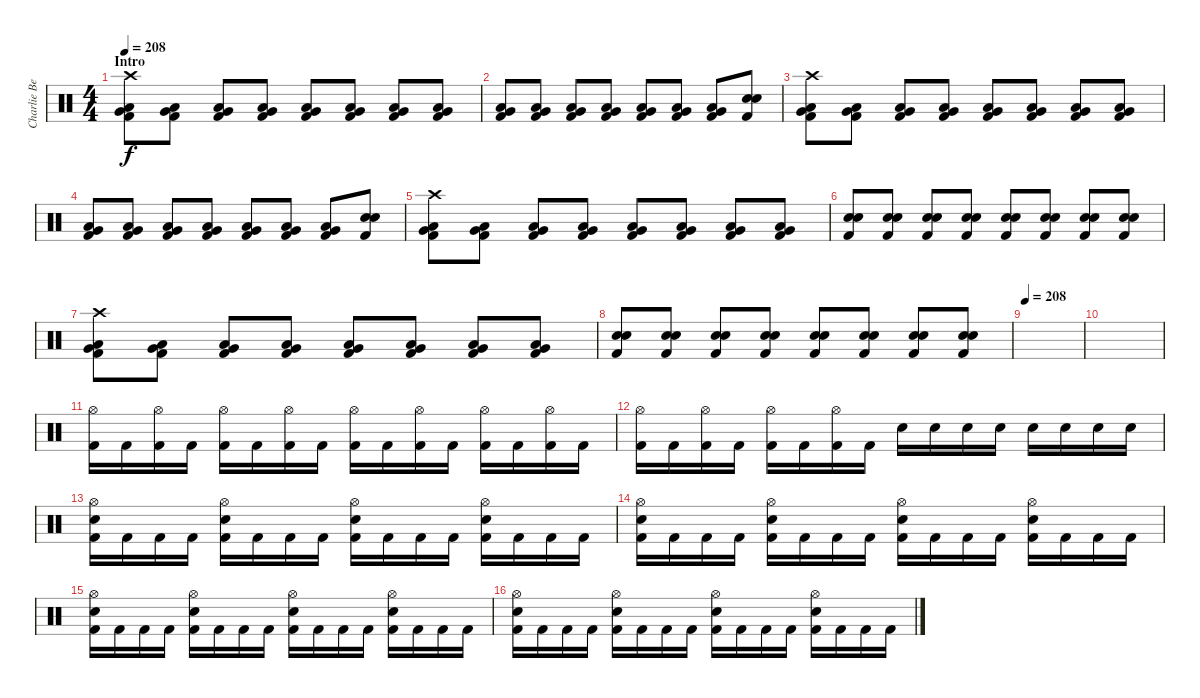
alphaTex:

\track ("Charlie Benate" "Charlie Be") {instrument percussion}
\staff {score}
\articulation defaults
\ts (4 4)
\section ("" "Intro")
\tempo 208
\tempo 152
\tempo 208
\clef neutral
\ks c
("Crash high (hit)" "Very Low Tom (hit)" "Low Tom (hit)" "Kick (hit) 2").8{dy f} ("Very Low Tom (hit)" "Low Tom (hit)" "Kick (hit) 2").8 ("Very Low Tom (hit)" "Low Tom (hit)" "Kick (hit) 2").8 ("Very Low Tom (hit)" "Low Tom (hit)" "Kick (hit) 2").8 ("Very Low Tom (hit)" "Low Tom (hit)" "Kick (hit) 2").8 ("Very Low Tom (hit)" "Low Tom (hit)" "Kick (hit) 2").8 ("Very Low Tom (hit)" "Low Tom (hit)" "Kick (hit) 2").8 ("Very Low Tom (hit)" "Low Tom (hit)" "Kick (hit) 2").8 |
("Very Low Tom (hit)" "Low Tom (hit)" "Kick (hit) 2").8 ("Very Low Tom (hit)" "Low Tom (hit)" "Kick (hit) 2").8 ("Very Low Tom (hit)" "Low Tom (hit)" "Kick (hit) 2").8 ("Very Low Tom (hit)" "Low Tom (hit)" "Kick (hit) 2").8 ("Very Low Tom (hit)" "Low Tom (hit)" "Kick (hit) 2").8 ("Very Low Tom (hit)" "Low Tom (hit)" "Kick (hit) 2").8 ("Very Low Tom (hit)" "Low Tom (hit)" "Kick (hit) 2").8 ("Electric Snare (hit)" "Electric Snare (hit)" "Kick (hit) 2").8 |
("Crash high (hit)" "Very Low Tom (hit)" "Low Tom (hit)" "Kick (hit) 2").8 ("Very Low Tom (hit)" "Low Tom (hit)" "Kick (hit) 2").8 ("Very Low Tom (hit)" "Low Tom (hit)" "Kick (hit) 2").8 ("Very Low Tom (hit)" "Low Tom (hit)" "Kick (hit) 2").8 ("Very Low Tom (hit)" "Low Tom (hit)" "Kick (hit) 2").8 ("Very Low Tom (hit)" "Low Tom (hit)" "Kick (hit) 2").8 ("Very Low Tom (hit)" "Low Tom (hit)" "Kick (hit) 2").8 ("Very Low Tom (hit)" "Low Tom (hit)" "Kick (hit) 2").8 |
("Very Low Tom (hit)" "Low Tom (hit)" "Kick (hit) 2").8 ("Very Low Tom (hit)" "Low Tom (hit)" "Kick (hit) 2").8 ("Very Low Tom (hit)" "Low Tom (hit)" "Kick (hit) 2").8 ("Very Low Tom (hit)" "Low Tom (hit)" "Kick (hit) 2").8 ("Very Low Tom (hit)" "Low Tom (hit)" "Kick (hit) 2").8 ("Very Low Tom (hit)" "Low Tom (hit)" "Kick (hit) 2").8 ("Very Low Tom (hit)" "Low Tom (hit)" "Kick (hit) 2").8 ("Electric Snare (hit)" "Electric Snare (hit)" "Kick (hit) 2").8 |
("Crash high (hit)" "Very Low Tom (hit)" "Low Tom (hit)" "Kick (hit) 2").8 ("Very Low Tom (hit)" "Low Tom (hit)" "Kick (hit) 2").8 ("Very Low Tom (hit)" "Low Tom (hit)" "Kick (hit) 2").8 ("Very Low Tom (hit)" "Low Tom (hit)" "Kick (hit) 2").8 ("Very Low Tom (hit)" "Low Tom (hit)" "Kick (hit) 2").8 ("Very Low Tom (hit)" "Low Tom (hit)" "Kick (hit) 2").8 ("Very Low Tom (hit)" "Low Tom (hit)" "Kick (hit) 2").8 ("Very Low Tom (hit)" "Low Tom (hit)" "Kick (hit) 2").8 |
("Electric Snare (hit)" "Electric Snare (hit)" "Kick (hit) 2").8 ("Electric Snare (hit)" "Electric Snare (hit)" "Kick (hit) 2").8 ("Electric Snare (hit)" "Electric Snare (hit)" "Kick (hit) 2").8 ("Electric Snare (hit)" "Electric Snare (hit)" "Kick (hit) 2").8 ("Electric Snare (hit)" "Electric Snare (hit)" "Kick (hit) 2").8 ("Electric Snare (hit)" "Electric Snare (hit)" "Kick (hit) 2").8 ("Electric Snare (hit)" "Electric Snare (hit)" "Kick (hit) 2").8 ("Electric Snare (hit)" "Electric Snare (hit)" "Kick (hit) 2").8 |
("Crash high (hit)" "Very Low Tom (hit)" "Low Tom (hit)" "Kick (hit) 2").8 ("Very Low Tom (hit)" "Low Tom (hit)" "Kick (hit) 2").8 ("Very Low Tom (hit)" "Low Tom (hit)" "Kick (hit) 2").8 ("Very Low Tom (hit)" "Low Tom (hit)" "Kick (hit) 2").8 ("Very Low Tom (hit)" "Low Tom (hit)" "Kick (hit) 2").8 ("Very Low Tom (hit)" "Low Tom (hit)" "Kick (hit) 2").8 ("Very Low Tom (hit)" "Low Tom (hit)" "Kick (hit) 2").8 ("Very Low Tom (hit)" "Low Tom (hit)" "Kick (hit) 2").8 |
("Electric Snare (hit)" "Electric Snare (hit)" "Kick (hit) 2").8 ("Electric Snare (hit)" "Electric Snare (hit)" "Kick (hit) 2").8 ("Electric Snare (hit)" "Electric Snare (hit)" "Kick (hit) 2").8 ("Electric Snare (hit)" "Electric Snare (hit)" "Kick (hit) 2").8 ("Electric Snare (hit)" "Electric Snare (hit)" "Kick (hit) 2").8 ("Electric Snare (hit)" "Electric Snare (hit)" "Kick (hit) 2").8 ("Electric Snare (hit)" "Electric Snare (hit)" "Kick (hit) 2").8 ("Electric Snare (hit)" "Electric Snare (hit)" "Kick (hit) 2").8 |
\tempo 208
|
|
("Hi-Hat (open)" "Kick (hit) 2").16 "Kick (hit) 2".16 ("Hi-Hat (open)" "Kick (hit) 2").16 "Kick (hit) 2".16 ("Hi-Hat (open)" "Kick (hit) 2").16 "Kick (hit) 2".16 ("Hi-Hat (open)" "Kick (hit) 2").16 "Kick (hit) 2".16 ("Hi-Hat (open)" "Kick (hit) 2").16 "Kick (hit) 2".16 ("Hi-Hat (open)" "Kick (hit) 2").16 "Kick (hit) 2".16 ("Hi-Hat (open)" "Kick (hit) 2").16 "Kick (hit) 2".16 ("Hi-Hat (open)" "Kick (hit) 2").16 "Kick (hit) 2".16 |
("Hi-Hat (open)" "Kick (hit) 2").16 "Kick (hit) 2".16 ("Hi-Hat (open)" "Kick (hit) 2").16 "Kick (hit) 2".16 ("Hi-Hat (open)" "Kick (hit) 2").16 "Kick (hit) 2".16 ("Hi-Hat (open)" "Kick (hit) 2").16 "Kick (hit) 2".16 "Electric Snare (hit)".16 "Electric Snare (hit)".16 "Electric Snare (hit)".16 "Electric Snare (hit)".16 "Electric Snare (hit)".16 "Electric Snare (hit)".16 "Electric Snare (hit)".16 "Electric Snare (hit)".16 |
("Hi-Hat (open)" "Electric Snare (hit)" "Kick (hit) 2").16 "Kick (hit) 2".16 "Kick (hit) 2".16 "Kick (hit) 2".16 ("Hi-Hat (open)" "Electric Snare (hit)" "Kick (hit) 2").16 "Kick (hit) 2".16 "Kick (hit) 2".16 "Kick (hit) 2".16 ("Hi-Hat (open)" "Electric Snare (hit)" "Kick (hit) 2").16 "Kick (hit) 2".16 "Kick (hit) 2".16 "Kick (hit) 2".16 ("Hi-Hat (open)" "Electric Snare (hit)" "Kick (hit) 2").16 "Kick (hit) 2".16 "Kick (hit) 2".16 "Kick (hit) 2".16 |
("Hi-Hat (open)" "Electric Snare (hit)" "Kick (hit) 2").16 "Kick (hit) 2".16 "Kick (hit) 2".16 "Kick (hit) 2".16 ("Hi-Hat (open)" "Electric Snare (hit)" "Kick (hit) 2").16 "Kick (hit) 2".16 "Kick (hit) 2".16 "Kick (hit) 2".16 ("Hi-Hat (open)" "Electric Snare (hit)" "Kick (hit) 2").16 "Kick (hit) 2".16 "Kick (hit) 2".16 "Kick (hit) 2".16 ("Hi-Hat (open)" "Electric Snare (hit)" "Kick (hit) 2").16 "Kick (hit) 2".16 "Kick (hit) 2".16 "Kick (hit) 2".16 |
("Hi-Hat (open)" "Electric Snare (hit)" "Kick (hit) 2").16 "Kick (hit) 2".16 "Kick (hit) 2".16 "Kick (hit) 2".16 ("Hi-Hat (open)" "Electric Snare (hit)" "Kick (hit) 2").16 "Kick (hit) 2".16 "Kick (hit) 2".16 "Kick (hit) 2".16 ("Hi-Hat (open)" "Electric Snare (hit)" "Kick (hit) 2").16 "Kick (hit) 2".16 "Kick (hit) 2".16 "Kick (hit) 2".16 ("Hi-Hat (open)" "Electric Snare (hit)" "Kick (hit) 2").16 "Kick (hit) 2".16 "Kick (hit) 2".16 "Kick (hit) 2".16 |
("Hi-Hat (open)" "Electric Snare (hit)" "Kick (hit) 2").16 "Kick (hit) 2".16 "Kick (hit) 2".16 "Kick (hit) 2".16 ("Hi-Hat (open)" "Electric Snare (hit)" "Kick (hit) 2").16 "Kick (hit) 2".16 "Kick (hit) 2".16 "Kick (hit) 2".16 ("Hi-Hat (open)" "Electric Snare (hit)" "Kick (hit) 2").16 "Kick (hit) 2".16 "Kick (hit) 2".16 "Kick (hit) 2".16 ("Hi-Hat (open)" "Electric Snare (hit)" "Kick (hit) 2").16 "Kick (hit) 2".16 "Kick (hit) 2".16 "Kick (hit) 2".16
